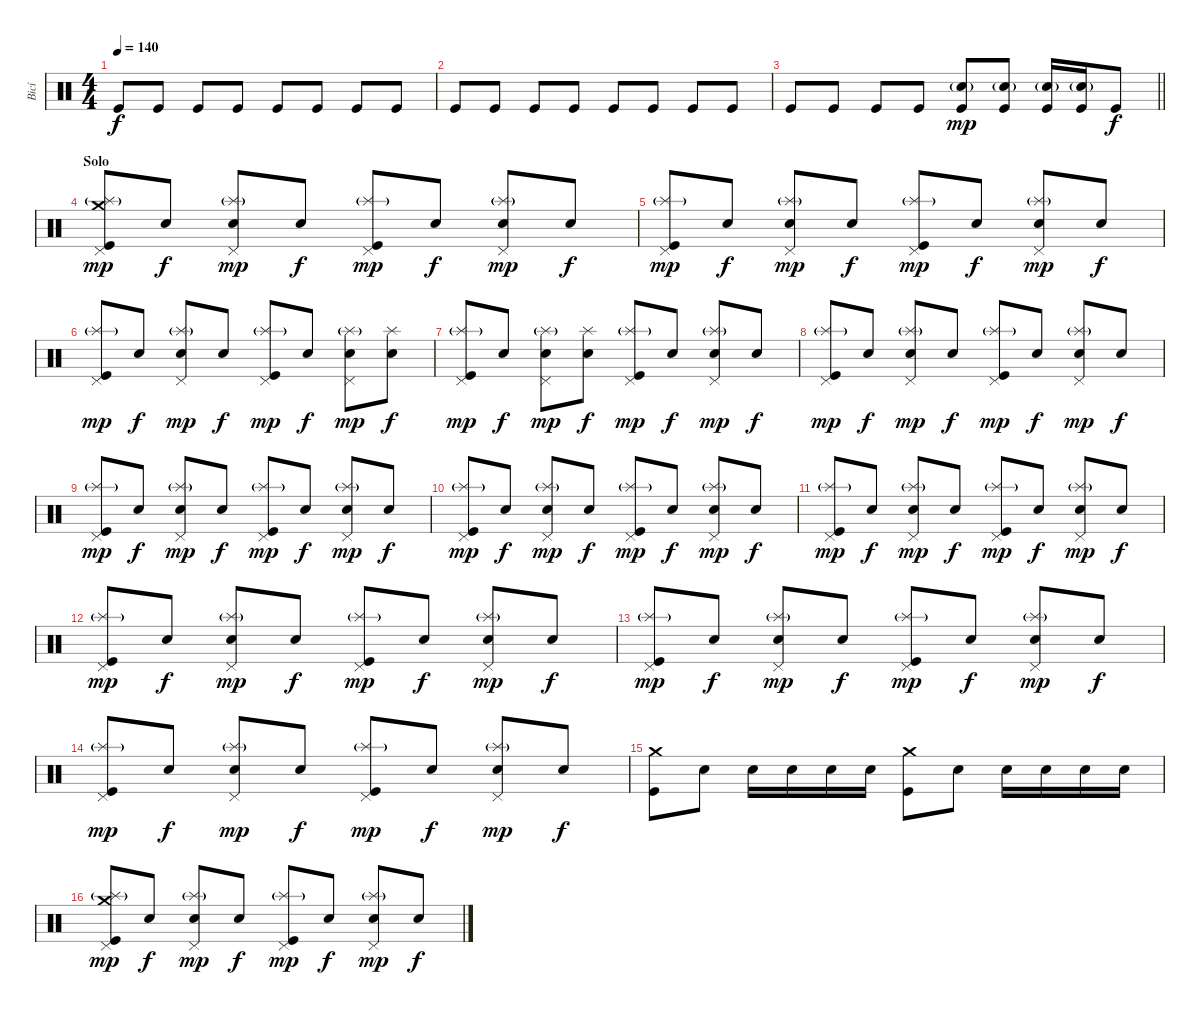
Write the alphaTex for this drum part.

\track ("Bicí" "Bicí") {instrument percussion}
\staff {score}
\articulation defaults
\ts (4 4)
\tempo 140
\clef neutral
\ks c "Kick (hit)".8{dy f} "Kick (hit)".8 "Kick (hit)".8 "Kick (hit)".8 "Kick (hit)".8 "Kick (hit)".8 "Kick (hit)".8 "Kick (hit)".8
|
"Kick (hit)".8 "Kick (hit)".8 "Kick (hit)".8 "Kick (hit)".8 "Kick (hit)".8 "Kick (hit)".8 "Kick (hit)".8 "Kick (hit)".8 |
\barLineRight lightlight "Kick (hit)".8 "Kick (hit)".8 "Kick (hit)".8 "Kick (hit)".8
("Electric Snare (hit)"{g} "Kick (hit)").8{dy mp} ("Electric Snare (hit)"{g} "Kick (hit)").8 ("Kick (hit)" "Electric Snare (hit)"{g}).16 ("Kick (hit)" "Electric Snare (hit)"{g}).16 "Kick (hit)".8{dy f} |
\section ("" "Solo")
("Crash medium (hit)" "Splash (hit)"{g} "Pedal Hi-Hat (hit)" "Kick (hit)").8{dy mp} "Snare (hit)".8{dy f} ("Splash (hit)"{g} "Pedal Hi-Hat (hit)" "Electric Snare (hit)").8{dy mp} "Snare (hit)".8{dy f} ("Splash (hit)"{g} "Pedal Hi-Hat (hit)" "Kick (hit)").8{dy mp} "Snare (hit)".8{dy f} ("Splash (hit)"{g} "Pedal Hi-Hat (hit)" "Electric Snare (hit)").8{dy mp} "Snare (hit)".8{dy f} |
("Splash (hit)"{g} "Pedal Hi-Hat (hit)" "Kick (hit)").8{dy mp} "Snare (hit)".8{dy f} ("Splash (hit)"{g} "Pedal Hi-Hat (hit)" "Electric Snare (hit)").8{dy mp} "Snare (hit)".8{dy f} ("Splash (hit)"{g} "Pedal Hi-Hat (hit)" "Kick (hit)").8{dy mp} "Snare (hit)".8{dy f} ("Splash (hit)"{g} "Pedal Hi-Hat (hit)" "Electric Snare (hit)").8{dy mp} "Snare (hit)".8{dy f} |
("Splash (hit)"{g} "Pedal Hi-Hat (hit)" "Kick (hit)").8{dy mp} "Snare (hit)".8{dy f} ("Splash (hit)"{g} "Pedal Hi-Hat (hit)" "Electric Snare (hit)").8{dy mp} "Snare (hit)".8{dy f} ("Splash (hit)"{g} "Pedal Hi-Hat (hit)" "Kick (hit)").8{dy mp} "Snare (hit)".8{dy f} ("Splash (hit)"{g} "Pedal Hi-Hat (hit)" "Electric Snare (hit)").8{dy mp} ("Splash (hit)" "Snare (hit)").8{dy f} |
("Splash (hit)"{g} "Pedal Hi-Hat (hit)" "Kick (hit)").8{dy mp} "Snare (hit)".8{dy f} ("Splash (hit)"{g} "Pedal Hi-Hat (hit)" "Electric Snare (hit)").8{dy mp} ("Splash (hit)" "Snare (hit)").8{dy f} ("Splash (hit)"{g} "Pedal Hi-Hat (hit)" "Kick (hit)").8{dy mp} "Snare (hit)".8{dy f} ("Splash (hit)"{g} "Pedal Hi-Hat (hit)" "Electric Snare (hit)").8{dy mp} "Snare (hit)".8{dy f} |
("Splash (hit)"{g} "Pedal Hi-Hat (hit)" "Kick (hit)").8{dy mp} "Snare (hit)".8{dy f} ("Splash (hit)"{g} "Pedal Hi-Hat (hit)" "Electric Snare (hit)").8{dy mp} "Snare (hit)".8{dy f} ("Splash (hit)"{g} "Pedal Hi-Hat (hit)" "Kick (hit)").8{dy mp} "Snare (hit)".8{dy f} ("Splash (hit)"{g} "Pedal Hi-Hat (hit)" "Electric Snare (hit)").8{dy mp} "Snare (hit)".8{dy f} |
("Splash (hit)"{g} "Pedal Hi-Hat (hit)" "Kick (hit)").8{dy mp} "Snare (hit)".8{dy f} ("Splash (hit)"{g} "Pedal Hi-Hat (hit)" "Electric Snare (hit)").8{dy mp} "Snare (hit)".8{dy f} ("Splash (hit)"{g} "Pedal Hi-Hat (hit)" "Kick (hit)").8{dy mp} "Snare (hit)".8{dy f} ("Splash (hit)"{g} "Pedal Hi-Hat (hit)" "Electric Snare (hit)").8{dy mp} "Snare (hit)".8{dy f} |
("Splash (hit)"{g} "Pedal Hi-Hat (hit)" "Kick (hit)").8{dy mp} "Snare (hit)".8{dy f} ("Splash (hit)"{g} "Pedal Hi-Hat (hit)" "Electric Snare (hit)").8{dy mp} "Snare (hit)".8{dy f} ("Splash (hit)"{g} "Pedal Hi-Hat (hit)" "Kick (hit)").8{dy mp} "Snare (hit)".8{dy f} ("Splash (hit)"{g} "Pedal Hi-Hat (hit)" "Electric Snare (hit)").8{dy mp} "Snare (hit)".8{dy f} |
("Splash (hit)"{g} "Pedal Hi-Hat (hit)" "Kick (hit)").8{dy mp} "Snare (hit)".8{dy f} ("Splash (hit)"{g} "Pedal Hi-Hat (hit)" "Electric Snare (hit)").8{dy mp} "Snare (hit)".8{dy f} ("Splash (hit)"{g} "Pedal Hi-Hat (hit)" "Kick (hit)").8{dy mp} "Snare (hit)".8{dy f} ("Splash (hit)"{g} "Pedal Hi-Hat (hit)" "Electric Snare (hit)").8{dy mp} "Snare (hit)".8{dy f} |
("Splash (hit)"{g} "Pedal Hi-Hat (hit)" "Kick (hit)").8{dy mp} "Snare (hit)".8{dy f} ("Splash (hit)"{g} "Pedal Hi-Hat (hit)" "Electric Snare (hit)").8{dy mp} "Snare (hit)".8{dy f} ("Splash (hit)"{g} "Pedal Hi-Hat (hit)" "Kick (hit)").8{dy mp} "Snare (hit)".8{dy f} ("Splash (hit)"{g} "Pedal Hi-Hat (hit)" "Electric Snare (hit)").8{dy mp} "Snare (hit)".8{dy f} |
("Splash (hit)"{g} "Pedal Hi-Hat (hit)" "Kick (hit)").8{dy mp} "Snare (hit)".8{dy f} ("Splash (hit)"{g} "Pedal Hi-Hat (hit)" "Electric Snare (hit)").8{dy mp} "Snare (hit)".8{dy f} ("Splash (hit)"{g} "Pedal Hi-Hat (hit)" "Kick (hit)").8{dy mp} "Snare (hit)".8{dy f} ("Splash (hit)"{g} "Pedal Hi-Hat (hit)" "Electric Snare (hit)").8{dy mp} "Snare (hit)".8{dy f} |
("Splash (hit)"{g} "Pedal Hi-Hat (hit)" "Kick (hit)").8{dy mp} "Snare (hit)".8{dy f} ("Splash (hit)"{g} "Pedal Hi-Hat (hit)" "Electric Snare (hit)").8{dy mp} "Snare (hit)".8{dy f} ("Splash (hit)"{g} "Pedal Hi-Hat (hit)" "Kick (hit)").8{dy mp} "Snare (hit)".8{dy f} ("Splash (hit)"{g} "Pedal Hi-Hat (hit)" "Electric Snare (hit)").8{dy mp} "Snare (hit)".8{dy f} |
("Crash medium (hit)" "Kick (hit)").8 "Snare (hit)".8 "Electric Snare (hit)".16 "Electric Snare (hit)".16 "Electric Snare (hit)".16 "Electric Snare (hit)".16 ("Crash medium (hit)" "Kick (hit)").8 "Snare (hit)".8 "Electric Snare (hit)".16 "Electric Snare (hit)".16 "Electric Snare (hit)".16 "Electric Snare (hit)".16 |
("Crash medium (hit)" "Splash (hit)"{g} "Pedal Hi-Hat (hit)" "Kick (hit)").8{dy mp} "Snare (hit)".8{dy f} ("Splash (hit)"{g} "Pedal Hi-Hat (hit)" "Electric Snare (hit)").8{dy mp} "Snare (hit)".8{dy f} ("Splash (hit)"{g} "Pedal Hi-Hat (hit)" "Kick (hit)").8{dy mp} "Snare (hit)".8{dy f} ("Splash (hit)"{g} "Pedal Hi-Hat (hit)" "Electric Snare (hit)").8{dy mp} "Snare (hit)".8{dy f}
